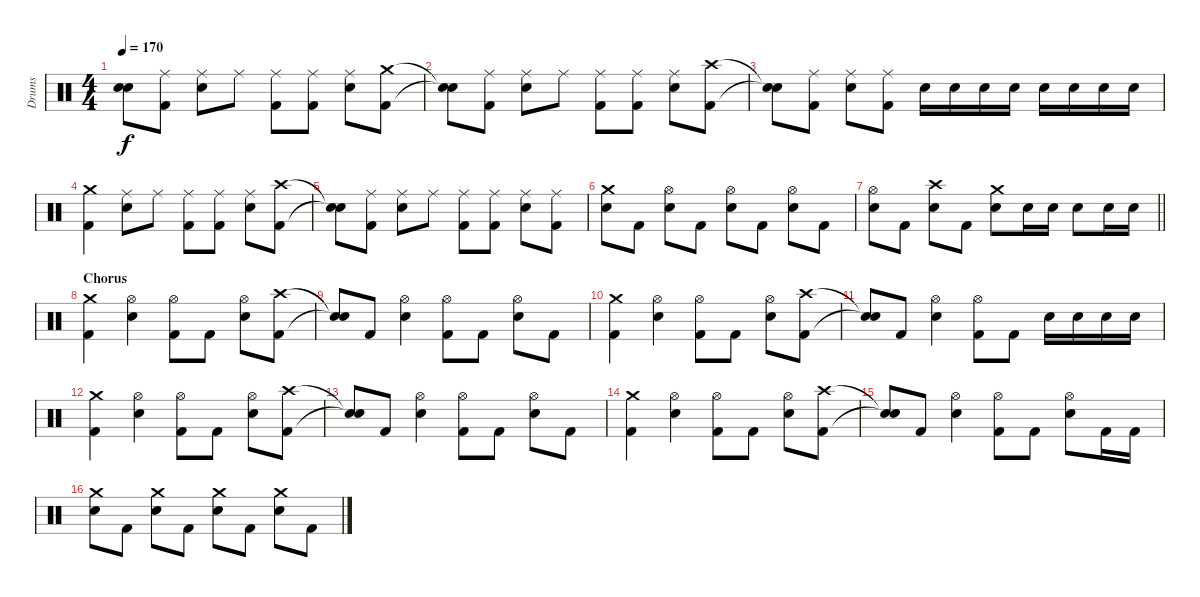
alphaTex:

\track ("Drums" "Drums") {instrument percussion}
\staff {score}
\articulation defaults
\ts (4 4)
\tempo 170
\clef neutral
\ks c
("Snare (hit)"{t} "Snare (hit)"{t}).8{dy f} ("Ride (middle)" "Kick (hit) 2").8 ("Ride (middle)" "Electric Snare (hit)").8 "Ride (middle)".8 ("Ride (middle)" "Kick (hit) 2").8 ("Ride (middle)" "Kick (hit) 2").8 ("Ride (middle)" "Electric Snare (hit)").8 ("Crash medium (hit)" "Kick (hit) 2").8 |
("Snare (hit)"{t} "Snare (hit)"{t}).8 ("Ride (middle)" "Kick (hit) 2").8 ("Ride (middle)" "Electric Snare (hit)").8 "Ride (middle)".8 ("Ride (middle)" "Kick (hit) 2").8 ("Ride (middle)" "Kick (hit) 2").8 ("Ride (middle)" "Electric Snare (hit)").8 ("Crash high (hit)" "Kick (hit) 2").8 |
("Snare (hit)"{t} "Snare (hit)"{t}).8 ("Ride (middle)" "Kick (hit) 2").8 ("Ride (middle)" "Electric Snare (hit)").8 ("Ride (middle)" "Kick (hit) 2").8 "Electric Snare (hit)".16 "Electric Snare (hit)".16 "Electric Snare (hit)".16 "Electric Snare (hit)".16 "Electric Snare (hit)".16 "Electric Snare (hit)".16 "Electric Snare (hit)".16 "Electric Snare (hit)".16 |
("Crash medium (hit)" "Kick (hit) 2").4 ("Ride (middle)" "Electric Snare (hit)").8 "Ride (middle)".8 ("Ride (middle)" "Kick (hit) 2").8 ("Ride (middle)" "Kick (hit) 2").8 ("Ride (middle)" "Electric Snare (hit)").8 ("Crash high (hit)" "Kick (hit) 2").8 |
("Snare (hit)"{t} "Snare (hit)"{t}).8 ("Ride (middle)" "Kick (hit) 2").8 ("Ride (middle)" "Electric Snare (hit)").8 "Ride (middle)".8 ("Ride (middle)" "Kick (hit) 2").8 ("Ride (middle)" "Kick (hit) 2").8 ("Ride (middle)" "Electric Snare (hit)").8 ("Ride (middle)" "Kick (hit) 2").8 |
("Crash medium (hit)" "Electric Snare (hit)").8 "Kick (hit) 2".8 ("Hi-Hat (open)" "Electric Snare (hit)").8 "Kick (hit) 2".8 ("Hi-Hat (open)" "Electric Snare (hit)").8 "Kick (hit) 2".8 ("Hi-Hat (open)" "Electric Snare (hit)").8 "Kick (hit) 2".8 |
\barLineRight lightlight
("Hi-Hat (open)" "Electric Snare (hit)").8 "Kick (hit) 2".8 ("Crash high (hit)" "Electric Snare (hit)").8 "Kick (hit) 2".8 ("Crash medium (hit)" "Electric Snare (hit)").8 "Electric Snare (hit)".16 "Electric Snare (hit)".16 "Electric Snare (hit)".8 "Electric Snare (hit)".16 "Electric Snare (hit)".16 |
\section ("" "Chorus")
("Crash medium (hit)" "Kick (hit) 2").4 ("Hi-Hat (open)" "Electric Snare (hit)").4 ("Hi-Hat (open)" "Kick (hit) 2").8 "Kick (hit) 2".8 ("Hi-Hat (open)" "Electric Snare (hit)").8 ("Crash high (hit)" "Kick (hit) 2").8 |
("Snare (hit)"{t} "Snare (hit)"{t}).8 "Kick (hit) 2".8 ("Hi-Hat (open)" "Electric Snare (hit)").4 ("Hi-Hat (open)" "Kick (hit) 2").8 "Kick (hit) 2".8 ("Hi-Hat (open)" "Electric Snare (hit)").8 "Kick (hit) 2".8 |
("Crash medium (hit)" "Kick (hit) 2").4 ("Hi-Hat (open)" "Electric Snare (hit)").4 ("Hi-Hat (open)" "Kick (hit) 2").8 "Kick (hit) 2".8 ("Hi-Hat (open)" "Electric Snare (hit)").8 ("Crash high (hit)" "Kick (hit) 2").8 |
("Snare (hit)"{t} "Snare (hit)"{t}).8 "Kick (hit) 2".8 ("Hi-Hat (open)" "Electric Snare (hit)").4 ("Hi-Hat (open)" "Kick (hit) 2").8 "Kick (hit) 2".8 "Electric Snare (hit)".16 "Electric Snare (hit)".16 "Electric Snare (hit)".16 "Electric Snare (hit)".16 |
("Crash medium (hit)" "Kick (hit) 2").4 ("Hi-Hat (open)" "Electric Snare (hit)").4 ("Hi-Hat (open)" "Kick (hit) 2").8 "Kick (hit) 2".8 ("Hi-Hat (open)" "Electric Snare (hit)").8 ("Crash high (hit)" "Kick (hit) 2").8 |
("Snare (hit)"{t} "Snare (hit)"{t}).8 "Kick (hit) 2".8 ("Hi-Hat (open)" "Electric Snare (hit)").4 ("Hi-Hat (open)" "Kick (hit) 2").8 "Kick (hit) 2".8 ("Hi-Hat (open)" "Electric Snare (hit)").8 "Kick (hit) 2".8 |
("Crash medium (hit)" "Kick (hit) 2").4 ("Hi-Hat (open)" "Electric Snare (hit)").4 ("Hi-Hat (open)" "Kick (hit) 2").8 "Kick (hit) 2".8 ("Hi-Hat (open)" "Electric Snare (hit)").8 ("Crash high (hit)" "Kick (hit) 2").8 |
("Snare (hit)"{t} "Snare (hit)"{t}).8 "Kick (hit) 2".8 ("Hi-Hat (open)" "Electric Snare (hit)").4 ("Hi-Hat (open)" "Kick (hit) 2").8 "Kick (hit) 2".8 ("Hi-Hat (open)" "Electric Snare (hit)").8 "Kick (hit) 2".16 "Kick (hit) 2".16 |
("Crash medium (hit)" "Electric Snare (hit)").8 "Kick (hit) 2".8 ("Crash medium (hit)" "Electric Snare (hit)").8 "Kick (hit) 2".8 ("Crash medium (hit)" "Electric Snare (hit)").8 "Kick (hit) 2".8 ("Crash medium (hit)" "Electric Snare (hit)").8 "Kick (hit) 2".8
